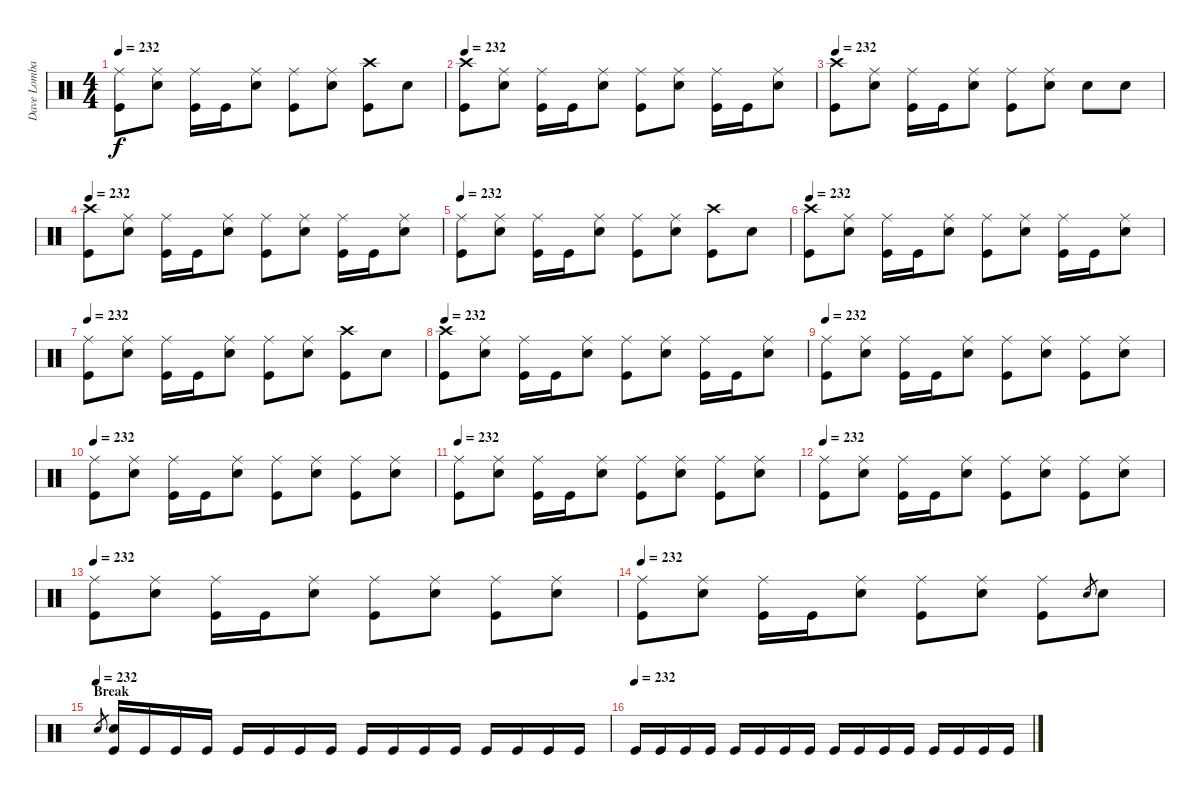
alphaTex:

\track ("Dave Lombardo" "Dave Lomba") {instrument percussion}
\staff {score}
\articulation defaults
\ts (4 4)
\tempo 232
\clef neutral
\ks c
("Ride (middle)" "Kick (hit)").8{dy f} ("Ride (middle)" "Snare (hit) 2").8 ("Ride (middle)" "Kick (hit)").16 "Kick (hit)".16 ("Ride (middle)" "Snare (hit) 2").8 ("Ride (middle)" "Kick (hit)").8 ("Ride (middle)" "Snare (hit) 2").8 ("Crash high (hit)" "Kick (hit)").8 "Snare (hit) 2".8 |
\tempo 232
("Crash high (hit)" "Kick (hit)").8 ("Ride (middle)" "Snare (hit) 2").8 ("Ride (middle)" "Kick (hit)").16 "Kick (hit)".16 ("Ride (middle)" "Snare (hit) 2").8 ("Ride (middle)" "Kick (hit)").8 ("Ride (middle)" "Snare (hit) 2").8 ("Ride (middle)" "Kick (hit)").16 "Kick (hit)".16 ("Ride (middle)" "Snare (hit) 2").8 |
\tempo 232
("Crash high (hit)" "Kick (hit)").8 ("Ride (middle)" "Snare (hit) 2").8 ("Ride (middle)" "Kick (hit)").16 "Kick (hit)".16 ("Ride (middle)" "Snare (hit) 2").8 ("Ride (middle)" "Kick (hit)").8 ("Ride (middle)" "Snare (hit) 2").8 "Snare (hit) 2".8 "Snare (hit) 2".8 |
\tempo 232
("Crash high (hit)" "Kick (hit)").8 ("Ride (middle)" "Snare (hit) 2").8 ("Ride (middle)" "Kick (hit)").16 "Kick (hit)".16 ("Ride (middle)" "Snare (hit) 2").8 ("Ride (middle)" "Kick (hit)").8 ("Ride (middle)" "Snare (hit) 2").8 ("Ride (middle)" "Kick (hit)").16 "Kick (hit)".16 ("Ride (middle)" "Snare (hit) 2").8 |
\tempo 232
("Ride (middle)" "Kick (hit)").8 ("Ride (middle)" "Snare (hit) 2").8 ("Ride (middle)" "Kick (hit)").16 "Kick (hit)".16 ("Ride (middle)" "Snare (hit) 2").8 ("Ride (middle)" "Kick (hit)").8 ("Ride (middle)" "Snare (hit) 2").8 ("Crash high (hit)" "Kick (hit)").8 "Snare (hit) 2".8 |
\tempo 232
("Crash high (hit)" "Kick (hit)").8 ("Ride (middle)" "Snare (hit) 2").8 ("Ride (middle)" "Kick (hit)").16 "Kick (hit)".16 ("Ride (middle)" "Snare (hit) 2").8 ("Ride (middle)" "Kick (hit)").8 ("Ride (middle)" "Snare (hit) 2").8 ("Ride (middle)" "Kick (hit)").16 "Kick (hit)".16 ("Ride (middle)" "Snare (hit) 2").8 |
\tempo 232
("Ride (middle)" "Kick (hit)").8 ("Ride (middle)" "Snare (hit) 2").8 ("Ride (middle)" "Kick (hit)").16 "Kick (hit)".16 ("Ride (middle)" "Snare (hit) 2").8 ("Ride (middle)" "Kick (hit)").8 ("Ride (middle)" "Snare (hit) 2").8 ("Crash high (hit)" "Kick (hit)").8 "Snare (hit) 2".8 |
\tempo 232
("Crash high (hit)" "Kick (hit)").8 ("Ride (middle)" "Snare (hit) 2").8 ("Ride (middle)" "Kick (hit)").16 "Kick (hit)".16 ("Ride (middle)" "Snare (hit) 2").8 ("Ride (middle)" "Kick (hit)").8 ("Ride (middle)" "Snare (hit) 2").8 ("Ride (middle)" "Kick (hit)").16 "Kick (hit)".16 ("Ride (middle)" "Snare (hit) 2").8 |
\tempo 232
("Ride (middle)" "Kick (hit)").8 ("Ride (middle)" "Snare (hit) 2").8 ("Ride (middle)" "Kick (hit)").16 "Kick (hit)".16 ("Ride (middle)" "Snare (hit) 2").8 ("Ride (middle)" "Kick (hit)").8 ("Ride (middle)" "Snare (hit) 2").8 ("Ride (middle)" "Kick (hit)").8 ("Ride (middle)" "Snare (hit) 2").8 |
\tempo 232
("Ride (middle)" "Kick (hit)").8 ("Ride (middle)" "Snare (hit) 2").8 ("Ride (middle)" "Kick (hit)").16 "Kick (hit)".16 ("Ride (middle)" "Snare (hit) 2").8 ("Ride (middle)" "Kick (hit)").8 ("Ride (middle)" "Snare (hit) 2").8 ("Ride (middle)" "Kick (hit)").8 ("Ride (middle)" "Snare (hit) 2").8 |
\tempo 232
("Ride (middle)" "Kick (hit)").8 ("Ride (middle)" "Snare (hit) 2").8 ("Ride (middle)" "Kick (hit)").16 "Kick (hit)".16 ("Ride (middle)" "Snare (hit) 2").8 ("Ride (middle)" "Kick (hit)").8 ("Ride (middle)" "Snare (hit) 2").8 ("Ride (middle)" "Kick (hit)").8 ("Ride (middle)" "Snare (hit) 2").8 |
\tempo 232
("Ride (middle)" "Kick (hit)").8 ("Ride (middle)" "Snare (hit) 2").8 ("Ride (middle)" "Kick (hit)").16 "Kick (hit)".16 ("Ride (middle)" "Snare (hit) 2").8 ("Ride (middle)" "Kick (hit)").8 ("Ride (middle)" "Snare (hit) 2").8 ("Ride (middle)" "Kick (hit)").8 ("Ride (middle)" "Snare (hit) 2").8 |
\tempo 232
("Ride (middle)" "Kick (hit)").8 ("Ride (middle)" "Snare (hit) 2").8 ("Ride (middle)" "Kick (hit)").16 "Kick (hit)".16 ("Ride (middle)" "Snare (hit) 2").8 ("Ride (middle)" "Kick (hit)").8 ("Ride (middle)" "Snare (hit) 2").8 ("Ride (middle)" "Kick (hit)").8 ("Ride (middle)" "Snare (hit) 2").8 |
\tempo 232
("Ride (middle)" "Kick (hit)").8 ("Ride (middle)" "Snare (hit) 2").8 ("Ride (middle)" "Kick (hit)").16 "Kick (hit)".16 ("Ride (middle)" "Snare (hit) 2").8 ("Ride (middle)" "Kick (hit)").8 ("Ride (middle)" "Snare (hit) 2").8 ("Ride (middle)" "Kick (hit)").8 "Snare (hit) 2".8{gr} "Snare (hit) 2".8 |
\section ("" "Break")
\tempo (232)
"Snare (hit) 2".8{gr} ("Snare (hit) 2" "Kick (hit)").16 "Kick (hit)".16 "Kick (hit)".16 "Kick (hit)".16 "Kick (hit)".16 "Kick (hit)".16 "Kick (hit)".16 "Kick (hit)".16 "Kick (hit)".16 "Kick (hit)".16 "Kick (hit)".16 "Kick (hit)".16 "Kick (hit)".16 "Kick (hit)".16 "Kick (hit)".16 "Kick (hit)".16 |
\tempo (232)
"Kick (hit)".16 "Kick (hit)".16 "Kick (hit)".16 "Kick (hit)".16 "Kick (hit)".16 "Kick (hit)".16 "Kick (hit)".16 "Kick (hit)".16 "Kick (hit)".16 "Kick (hit)".16 "Kick (hit)".16 "Kick (hit)".16 "Kick (hit)".16 "Kick (hit)".16 "Kick (hit)".16 "Kick (hit)".16
